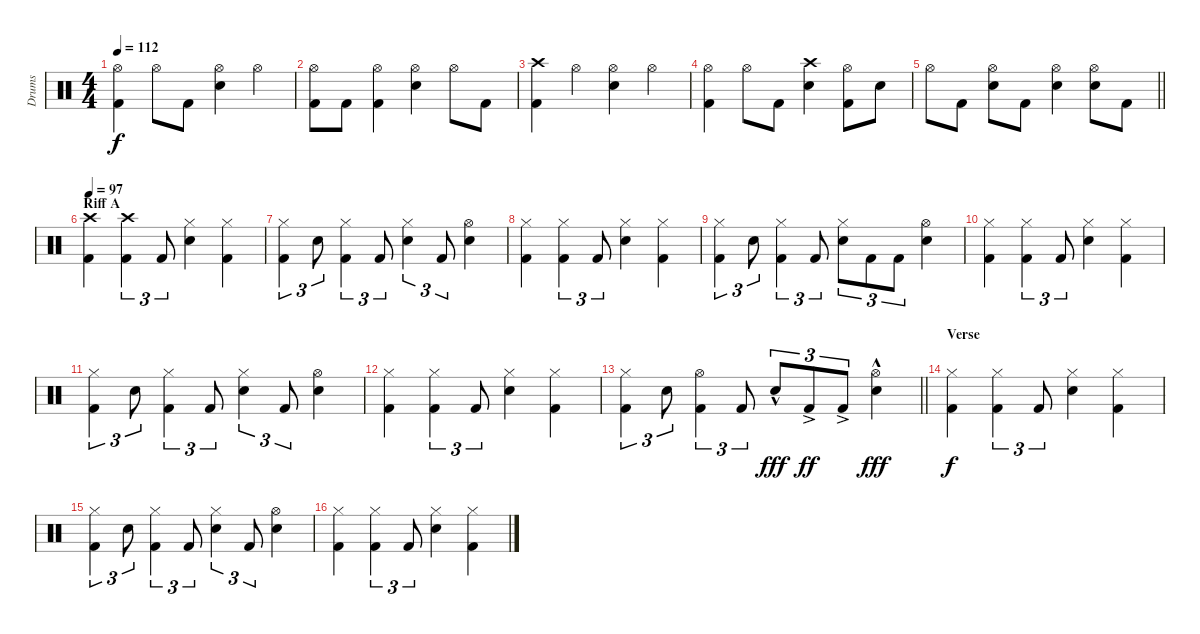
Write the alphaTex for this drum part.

\track ("Drums" "Drums") {instrument percussion}
\staff {score}
\articulation defaults
\ts (4 4)
\tempo 112
\clef neutral
\ks c
("Hi-Hat (open)" "Kick (hit) 2").4{dy f} "Hi-Hat (open)".8 "Kick (hit) 2".8 ("Hi-Hat (open)" "Electric Snare (hit)").4 "Hi-Hat (open)".4 |
("Hi-Hat (open)" "Kick (hit) 2").8 "Kick (hit) 2".8 ("Hi-Hat (open)" "Kick (hit) 2").4 ("Hi-Hat (open)" "Electric Snare (hit)").4 "Hi-Hat (open)".8 "Kick (hit) 2".8 |
("Crash high (hit)" "Kick (hit) 2").4 "Hi-Hat (open)".4 ("Hi-Hat (open)" "Electric Snare (hit)").4 "Hi-Hat (open)".4 |
("Hi-Hat (open)" "Kick (hit) 2").4 "Hi-Hat (open)".8 "Kick (hit) 2".8 ("Crash high (hit)" "Electric Snare (hit)").4 ("Hi-Hat (open)" "Kick (hit) 2").8 "Electric Snare (hit)".8 |
\barLineRight lightlight "Hi-Hat (open)".8 "Kick (hit) 2".8
("Hi-Hat (open)" "Electric Snare (hit)").8 "Kick (hit) 2".8 ("Hi-Hat (open)" "Electric Snare (hit)").4 ("Hi-Hat (open)" "Electric Snare (hit)").8 "Kick (hit) 2".8 |
\section ("" "Riff A")
\tempo 97
("Crash high (hit)" "Kick (hit) 2").4 ("Crash high (hit)" "Kick (hit) 2").4{tu (3 2)} "Kick (hit) 2".8{tu (3 2)} ("Hi-Hat (closed)" "Electric Snare (hit)").4 ("Hi-Hat (closed)" "Kick (hit) 2").4 |
("Hi-Hat (closed)" "Kick (hit) 2").4{tu (3 2)} "Electric Snare (hit)".8{tu (3 2)} ("Hi-Hat (closed)" "Kick (hit) 2").4{tu (3 2)} "Kick (hit) 2".8{tu (3 2)} ("Hi-Hat (closed)" "Electric Snare (hit)").4{tu (3 2)} "Kick (hit) 2".8{tu (3 2)} ("Hi-Hat (open)" "Electric Snare (hit)").4 |
("Hi-Hat (closed)" "Kick (hit) 2").4 ("Hi-Hat (closed)" "Kick (hit) 2").4{tu (3 2)} "Kick (hit) 2".8{tu (3 2)} ("Hi-Hat (closed)" "Electric Snare (hit)").4 ("Hi-Hat (closed)" "Kick (hit) 2").4 |
("Hi-Hat (closed)" "Kick (hit) 2").4{tu (3 2)} "Electric Snare (hit)".8{tu (3 2)} ("Hi-Hat (closed)" "Kick (hit) 2").4{tu (3 2)} "Kick (hit) 2".8{tu (3 2)} ("Hi-Hat (closed)" "Electric Snare (hit)").8{tu (3 2)} "Kick (hit) 2".8{tu (3 2)} "Kick (hit) 2".8{tu (3 2)} ("Hi-Hat (open)" "Electric Snare (hit)").4 |
("Hi-Hat (closed)" "Kick (hit) 2").4 ("Hi-Hat (closed)" "Kick (hit) 2").4{tu (3 2)} "Kick (hit) 2".8{tu (3 2)} ("Hi-Hat (closed)" "Electric Snare (hit)").4 ("Hi-Hat (closed)" "Kick (hit) 2").4 |
("Hi-Hat (closed)" "Kick (hit) 2").4{tu (3 2)} "Electric Snare (hit)".8{tu (3 2)} ("Hi-Hat (closed)" "Kick (hit) 2").4{tu (3 2)} "Kick (hit) 2".8{tu (3 2)} ("Hi-Hat (closed)" "Electric Snare (hit)").4{tu (3 2)} "Kick (hit) 2".8{tu (3 2)} ("Hi-Hat (open)" "Electric Snare (hit)").4 |
("Hi-Hat (closed)" "Kick (hit) 2").4 ("Hi-Hat (closed)" "Kick (hit) 2").4{tu (3 2)} "Kick (hit) 2".8{tu (3 2)} ("Hi-Hat (closed)" "Electric Snare (hit)").4 ("Hi-Hat (closed)" "Kick (hit) 2").4 |
\barLineRight lightlight
("Hi-Hat (closed)" "Kick (hit) 2").4{tu (3 2)} "Electric Snare (hit)".8{tu (3 2)} ("Hi-Hat (open)" "Kick (hit) 2").4{tu (3 2)} "Kick (hit) 2".8{tu (3 2)} "Electric Snare (hit)"{hac}.8{tu (3 2) dy fff} "Kick (hit) 2"{ac}.8{tu (3 2) dy ff} "Kick (hit) 2"{ac}.8{tu (3 2)} ("Hi-Hat (open)" "Electric Snare (hit)"{hac}).4{dy fff} |
\section ("" "Verse")
("Hi-Hat (closed)" "Kick (hit) 2").4{dy f} ("Hi-Hat (closed)" "Kick (hit) 2").4{tu (3 2)} "Kick (hit) 2".8{tu (3 2)} ("Hi-Hat (closed)" "Electric Snare (hit)").4 ("Hi-Hat (closed)" "Kick (hit) 2").4 |
("Hi-Hat (closed)" "Kick (hit) 2").4{tu (3 2)} "Electric Snare (hit)".8{tu (3 2)} ("Hi-Hat (closed)" "Kick (hit) 2").4{tu (3 2)} "Kick (hit) 2".8{tu (3 2)} ("Hi-Hat (closed)" "Electric Snare (hit)").4{tu (3 2)} "Kick (hit) 2".8{tu (3 2)} ("Hi-Hat (open)" "Electric Snare (hit)").4 |
("Hi-Hat (closed)" "Kick (hit) 2").4 ("Hi-Hat (closed)" "Kick (hit) 2").4{tu (3 2)} "Kick (hit) 2".8{tu (3 2)} ("Hi-Hat (closed)" "Electric Snare (hit)").4 ("Hi-Hat (closed)" "Kick (hit) 2").4
